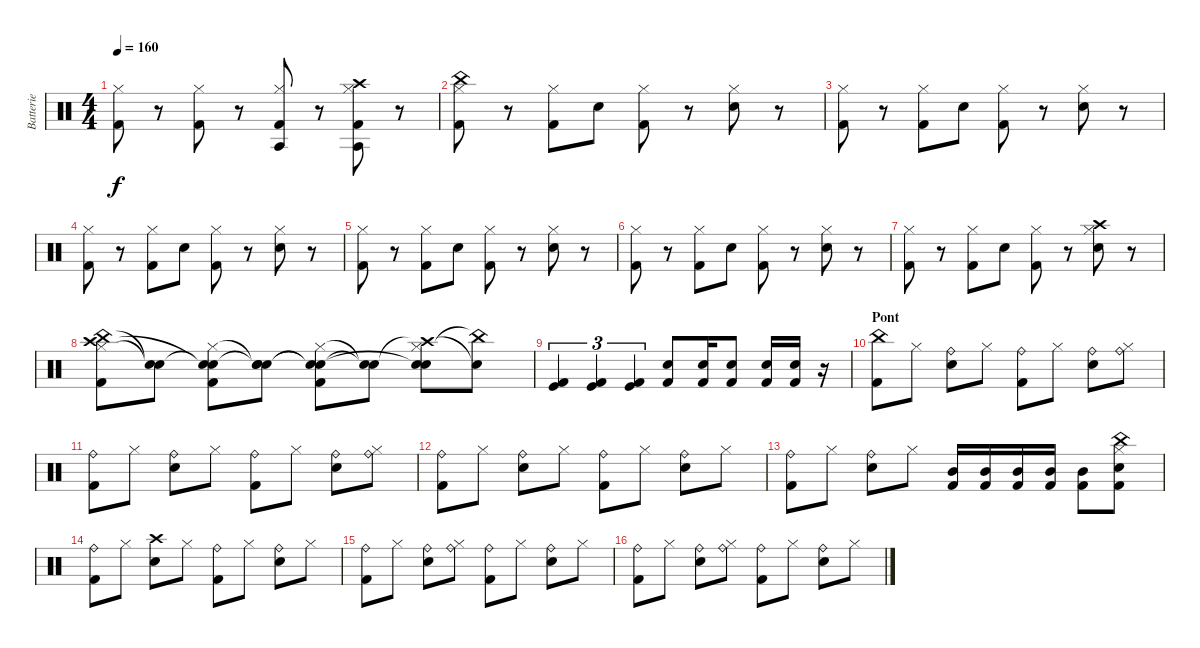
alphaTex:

\track ("Batterie" "Batterie") {instrument percussion}
\staff {score}
\articulation defaults
\ts (4 4)
\tempo 160
\clef neutral
\ks c
("Hi-Hat (closed)" "Kick (hit) 2").8{dy f} r.8 ("Hi-Hat (closed)" "Kick (hit) 2").8 r.8 ("Hi-Hat (closed)" "Agogo tow (hit)" "Kick (hit) 2").8 r.8 ("Hi-Hat (closed)" "Crash high (hit)" "Agogo tow (hit)" "Kick (hit) 2").8 r.8 |
("Hi-Hat (closed)" "China (hit)" "Kick (hit) 2").8 r.8 ("Hi-Hat (closed)" "Kick (hit) 2").8 "Snare (hit) 2".8 ("Hi-Hat (closed)" "Kick (hit) 2").8 r.8 ("Hi-Hat (closed)" "Snare (hit) 2").8 r.8 |
("Hi-Hat (closed)" "Kick (hit) 2").8 r.8 ("Hi-Hat (closed)" "Kick (hit) 2").8 "Snare (hit) 2".8 ("Hi-Hat (closed)" "Kick (hit) 2").8 r.8 ("Hi-Hat (closed)" "Snare (hit) 2").8 r.8 |
("Hi-Hat (closed)" "Kick (hit) 2").8 r.8 ("Hi-Hat (closed)" "Kick (hit) 2").8 "Snare (hit) 2".8 ("Hi-Hat (closed)" "Kick (hit) 2").8 r.8 ("Hi-Hat (closed)" "Snare (hit) 2").8 r.8 |
("Hi-Hat (closed)" "Kick (hit) 2").8 r.8 ("Hi-Hat (closed)" "Kick (hit) 2").8 "Snare (hit) 2".8 ("Hi-Hat (closed)" "Kick (hit) 2").8 r.8 ("Hi-Hat (closed)" "Snare (hit) 2").8 r.8 |
("Hi-Hat (closed)" "Kick (hit) 2").8 r.8 ("Hi-Hat (closed)" "Kick (hit) 2").8 "Snare (hit) 2".8 ("Hi-Hat (closed)" "Kick (hit) 2").8 r.8 ("Hi-Hat (closed)" "Snare (hit) 2").8 r.8 |
("Hi-Hat (closed)" "Kick (hit) 2").8 r.8 ("Hi-Hat (closed)" "Kick (hit) 2").8 "Snare (hit) 2".8 ("Hi-Hat (closed)" "Kick (hit) 2").8 r.8 ("Hi-Hat (closed)" "Crash high (hit)" "Snare (hit) 2").8 r.8 |
("Hi-Hat (closed)" "China (hit)" "Crash high (hit)" "Kick (hit) 2").8 ("Snare (hit)"{t} "Snare (hit)"{t}).8 ("Hi-Hat (closed)" "Snare (hit)"{t} "Snare (hit)"{t} "Kick (hit) 2").8 ("Snare (hit)"{t} "Snare (hit)"{t} "Snare (hit) 2").8 ("Hi-Hat (closed)" "Snare (hit)"{t} "Snare (hit)"{t} "Kick (hit) 2").8 ("Snare (hit)"{t} "Snare (hit)"{t}).8 ("Hi-Hat (closed)" "Crash high (hit)"{t} "Snare (hit)"{t} "Snare (hit) 2").8 ("China (hit)"{t} "Snare (hit)"{t}).8 |
("Kick (hit)" "Kick (hit) 2").4{tu (3 2)} ("Kick (hit)" "Kick (hit) 2").4{tu (3 2)} ("Kick (hit)" "Kick (hit) 2").4{tu (3 2)} ("Snare (hit) 2" "Kick (hit) 2").8 ("Snare (hit) 2" "Kick (hit) 2").16 ("Snare (hit) 2" "Kick (hit) 2").8 ("Snare (hit) 2" "Kick (hit) 2").16 ("Snare (hit) 2" "Kick (hit) 2").16 r.16 |
\section ("" "Pont")
("China (hit)" "Kick (hit) 2").8 "Hi-Hat (closed)".8 ("Ride (bell)" "Snare (hit) 2").8 "Hi-Hat (closed)".8 ("Ride (bell)" "Kick (hit) 2").8 "Hi-Hat (closed)".8 ("Ride (bell)" "Snare (hit) 2").8 ("Hi-Hat (closed)" "Ride (bell)").8 |
("Ride (bell)" "Kick (hit) 2").8 "Hi-Hat (closed)".8 ("Ride (bell)" "Snare (hit) 2").8 "Hi-Hat (closed)".8 ("Ride (bell)" "Kick (hit) 2").8 "Hi-Hat (closed)".8 ("Ride (bell)" "Snare (hit) 2").8 ("Hi-Hat (closed)" "Ride (bell)").8 |
("Ride (bell)" "Kick (hit) 2").8 "Hi-Hat (closed)".8 ("Ride (bell)" "Snare (hit) 2").8 "Hi-Hat (closed)".8 ("Ride (bell)" "Kick (hit) 2").8 "Hi-Hat (closed)".8 ("Ride (bell)" "Snare (hit) 2").8 "Hi-Hat (closed)".8 |
("Ride (bell)" "Kick (hit) 2").8 "Hi-Hat (closed)".8 ("Ride (bell)" "Snare (hit) 2").8 "Hi-Hat (closed)".8 ("Mid Tom (hit)" "Kick (hit) 2").16 ("Mid Tom (hit)" "Kick (hit) 2").16 ("Mid Tom (hit)" "Kick (hit) 2").16 ("Mid Tom (hit)" "Kick (hit) 2").16 ("Mid Tom (hit)" "Kick (hit) 2").8 ("Hi-Hat (closed)" "China (hit)" "Snare (hit) 2" "Kick (hit) 2").8 |
("Ride (bell)" "Kick (hit) 2").8 "Hi-Hat (closed)".8 ("Crash high (hit)" "Snare (hit) 2").8 "Hi-Hat (closed)".8 ("Ride (bell)" "Kick (hit) 2").8 "Hi-Hat (closed)".8 ("Ride (bell)" "Snare (hit) 2").8 "Hi-Hat (closed)".8 |
("Ride (bell)" "Kick (hit) 2").8 "Hi-Hat (closed)".8 ("Ride (bell)" "Snare (hit) 2").8 ("Hi-Hat (closed)" "Ride (bell)").8 ("Ride (bell)" "Kick (hit) 2").8 "Hi-Hat (closed)".8 ("Ride (bell)" "Snare (hit) 2").8 "Hi-Hat (closed)".8 |
("Ride (bell)" "Kick (hit) 2").8 "Hi-Hat (closed)".8 ("Ride (bell)" "Snare (hit) 2").8 ("Hi-Hat (closed)" "Ride (bell)").8 ("Ride (bell)" "Kick (hit) 2").8 "Hi-Hat (closed)".8 ("Ride (bell)" "Snare (hit) 2").8 "Hi-Hat (closed)".8
